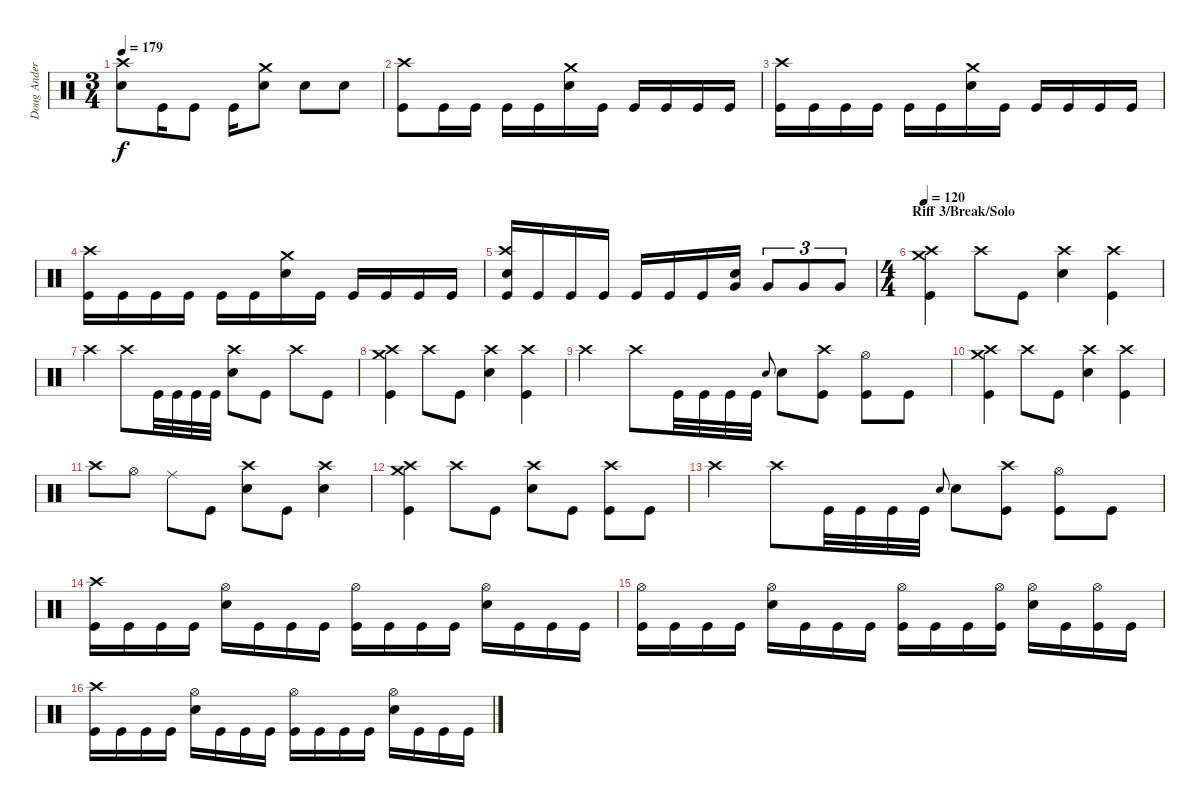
\track ("Doug Anderson" "Doug Ander") {instrument percussion}
\staff {score}
\articulation defaults
\ts (3 4)
\tempo 179
\clef neutral
\ks c
("Snare (hit) 2" "Crash high (hit)").8{dy f} "Kick (hit)".16 "Kick (hit)".8 "Kick (hit)".16 ("Snare (hit) 2" "Crash medium (hit)").8 "Snare (hit) 2".8 "Snare (hit) 2".8 |
("Kick (hit)" "Crash high (hit)").8 "Kick (hit)".16 "Kick (hit)".16 "Kick (hit)".16 "Kick (hit)".16 ("Snare (hit) 2" "Crash medium (hit)").16 "Kick (hit)".16 "Kick (hit)".16 "Kick (hit)".16 "Kick (hit)".16 "Kick (hit)".16 |
("Kick (hit)" "Crash high (hit)").16 "Kick (hit)".16 "Kick (hit)".16 "Kick (hit)".16 "Kick (hit)".16 "Kick (hit)".16 ("Snare (hit) 2" "Crash medium (hit)").16 "Kick (hit)".16 "Kick (hit)".16 "Kick (hit)".16 "Kick (hit)".16 "Kick (hit)".16 |
("Kick (hit)" "Crash high (hit)").16 "Kick (hit)".16 "Kick (hit)".16 "Kick (hit)".16 "Kick (hit)".16 "Kick (hit)".16 ("Snare (hit) 2" "Crash medium (hit)").16 "Kick (hit)".16 "Kick (hit)".16 "Kick (hit)".16 "Kick (hit)".16 "Kick (hit)".16 |
("Crash high (hit)" "Snare (hit) 2" "Kick (hit)").16 "Kick (hit)".16 "Kick (hit)".16 "Kick (hit)".16 "Kick (hit)".16 "Kick (hit)".16 "Kick (hit)".16 ("Snare (hit) 2" "Very Low Tom (hit)").16 "Very Low Tom (hit)".8{tu (3 2)} "Very Low Tom (hit)".8{tu (3 2)} "Very Low Tom (hit)".8{tu (3 2)} |
\ts (4 4)
\section ("" "Riff 3/Break/Solo")
\tempo 120
("Kick (hit)" "Crash high (hit)" "Crash medium (hit)").4 "Crash high (hit)".8 "Kick (hit)".8 ("Snare (hit) 2" "Crash high (hit)").4 ("Kick (hit)" "Crash high (hit)").4 |
"Crash high (hit)".4 "Crash high (hit)".8 "Kick (hit)".32 "Kick (hit)".32 "Kick (hit)".32 "Kick (hit)".32 ("Snare (hit) 2" "Crash high (hit)").8 "Kick (hit)".8 "Crash high (hit)".8 "Kick (hit)".8 |
("Kick (hit)" "Crash high (hit)" "Crash medium (hit)").4 "Crash high (hit)".8 "Kick (hit)".8 ("Snare (hit) 2" "Crash high (hit)").4 ("Kick (hit)" "Crash high (hit)").4 |
"Crash high (hit)".4 "Crash high (hit)".8 "Kick (hit)".32 "Kick (hit)".32 "Kick (hit)".32 "Kick (hit)".32 "Snare (hit)".8{gr onbeat} "Snare (hit) 2".8 ("Kick (hit)" "Crash high (hit)").8 ("Kick (hit)" "Hi-Hat (open)").8 "Kick (hit)".8 |
("Kick (hit)" "Crash high (hit)" "Crash medium (hit)").4 "Crash high (hit)".8 "Kick (hit)".8 ("Snare (hit) 2" "Crash high (hit)").4 ("Kick (hit)" "Crash high (hit)").4 |
"Crash high (hit)".8 "Hi-Hat (open)".8 "Ride (middle)".8 "Kick (hit)".8 ("Snare (hit) 2" "Crash high (hit)").8 "Kick (hit)".8 ("Snare (hit) 2" "Crash high (hit)").4 |
("Kick (hit)" "Crash high (hit)" "Crash medium (hit)").4 "Crash high (hit)".8 "Kick (hit)".8 ("Snare (hit) 2" "Crash high (hit)").8 "Kick (hit)".8 ("Kick (hit)" "Crash high (hit)").8 "Kick (hit)".8 |
"Crash high (hit)".4 "Crash high (hit)".8 "Kick (hit)".32 "Kick (hit)".32 "Kick (hit)".32 "Kick (hit)".32 "Snare (hit)".8{gr onbeat} "Snare (hit) 2".8 ("Kick (hit)" "Crash high (hit)").8 ("Kick (hit)" "Hi-Hat (open)").8 "Kick (hit)".8 |
("Kick (hit)" "Crash high (hit)").16 "Kick (hit)".16 "Kick (hit)".16 "Kick (hit)".16 ("Snare (hit) 2" "Hi-Hat (open)").16 "Kick (hit)".16 "Kick (hit)".16 "Kick (hit)".16 ("Kick (hit)" "Hi-Hat (open)").16 "Kick (hit)".16 "Kick (hit)".16 "Kick (hit)".16 ("Snare (hit) 2" "Hi-Hat (open)").16 "Kick (hit)".16 "Kick (hit)".16 "Kick (hit)".16 |
("Kick (hit)" "Hi-Hat (open)").16 "Kick (hit)".16 "Kick (hit)".16 "Kick (hit)".16 ("Snare (hit) 2" "Hi-Hat (open)").16 "Kick (hit)".16 "Kick (hit)".16 "Kick (hit)".16 ("Kick (hit)" "Hi-Hat (open)").16 "Kick (hit)".16 "Kick (hit)".16 ("Kick (hit)" "Hi-Hat (open)").16 ("Hi-Hat (open)" "Snare (hit) 2").16 "Kick (hit)".16 ("Kick (hit)" "Hi-Hat (open)").16 "Kick (hit)".16 |
("Kick (hit)" "Crash high (hit)").16 "Kick (hit)".16 "Kick (hit)".16 "Kick (hit)".16 ("Snare (hit) 2" "Hi-Hat (open)").16 "Kick (hit)".16 "Kick (hit)".16 "Kick (hit)".16 ("Kick (hit)" "Hi-Hat (open)").16 "Kick (hit)".16 "Kick (hit)".16 "Kick (hit)".16 ("Snare (hit) 2" "Hi-Hat (open)").16 "Kick (hit)".16 "Kick (hit)".16 "Kick (hit)".16
